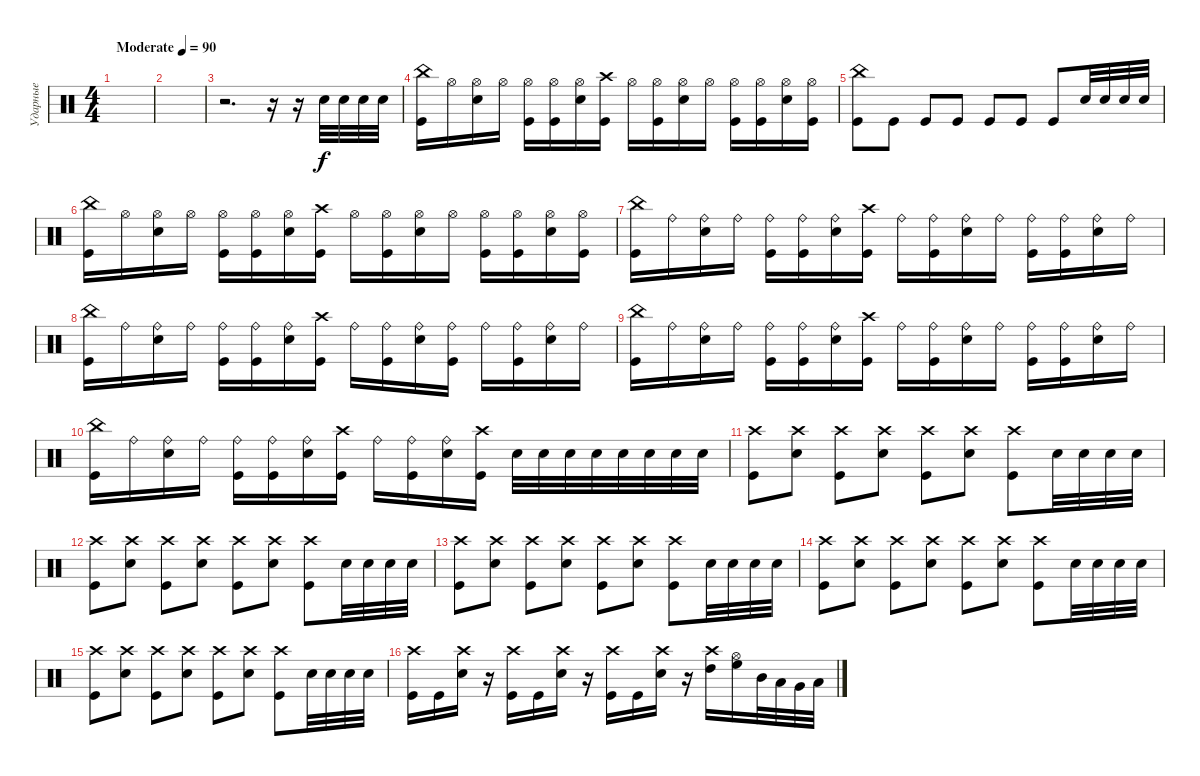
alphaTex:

\track ("Ударные" "Ударные") {instrument percussion}
\staff {score}
\articulation defaults
\ts (4 4)
\tempo (90 "Moderate")
\clef neutral
\ks c
|
|
r.2{d} r.16 r.16 "Electric Snare (hit)".32 "Electric Snare (hit)".32 "Electric Snare (hit)".32 "Electric Snare (hit)".32 |
("China (hit)" "Kick (hit)").16 "Hi-Hat (open)".16 ("Hi-Hat (open)" "Electric Snare (hit)").16 "Hi-Hat (open)".16 ("Hi-Hat (open)" "Kick (hit)").16 ("Hi-Hat (open)" "Kick (hit)").16 ("Hi-Hat (open)" "Electric Snare (hit)").16 ("Crash high (hit)" "Kick (hit)").16 "Hi-Hat (open)".16 ("Hi-Hat (open)" "Kick (hit)").16 ("Hi-Hat (open)" "Electric Snare (hit)").16 "Hi-Hat (open)".16 ("Hi-Hat (open)" "Kick (hit)").16 ("Hi-Hat (open)" "Kick (hit)").16 ("Hi-Hat (open)" "Electric Snare (hit)").16 ("Hi-Hat (open)" "Kick (hit)").16 |
("China (hit)" "Kick (hit)").8 "Kick (hit)".8 "Kick (hit)".8 "Kick (hit)".8 "Kick (hit)".8 "Kick (hit)".8 "Kick (hit)".8 "Electric Snare (hit)".32 "Electric Snare (hit)".32 "Electric Snare (hit)".32 "Electric Snare (hit)".32 |
("China (hit)" "Kick (hit)").16 "Hi-Hat (open)".16 ("Hi-Hat (open)" "Electric Snare (hit)").16 "Hi-Hat (open)".16 ("Hi-Hat (open)" "Kick (hit)").16 ("Hi-Hat (open)" "Kick (hit)").16 ("Hi-Hat (open)" "Electric Snare (hit)").16 ("Crash high (hit)" "Kick (hit)").16 "Hi-Hat (open)".16 ("Hi-Hat (open)" "Kick (hit)").16 ("Hi-Hat (open)" "Electric Snare (hit)").16 "Hi-Hat (open)".16 ("Hi-Hat (open)" "Kick (hit)").16 ("Hi-Hat (open)" "Kick (hit)").16 ("Hi-Hat (open)" "Electric Snare (hit)").16 ("Kick (hit)" "Hi-Hat (open)").16 |
("China (hit)" "Kick (hit)").16 "Ride (bell)".16 ("Ride (bell)" "Electric Snare (hit)").16 "Ride (bell)".16 ("Ride (bell)" "Kick (hit)").16 ("Ride (bell)" "Kick (hit)").16 ("Ride (bell)" "Electric Snare (hit)").16 ("Crash high (hit)" "Kick (hit)").16 "Ride (bell)".16 ("Ride (bell)" "Kick (hit)").16 ("Ride (bell)" "Electric Snare (hit)").16 "Ride (bell)".16 ("Ride (bell)" "Kick (hit)").16 ("Ride (bell)" "Kick (hit)").16 ("Ride (bell)" "Electric Snare (hit)").16 "Ride (bell)".16 |
("China (hit)" "Kick (hit)").16 "Ride (bell)".16 ("Ride (bell)" "Electric Snare (hit)").16 "Ride (bell)".16 ("Ride (bell)" "Kick (hit)").16 ("Ride (bell)" "Kick (hit)").16 ("Ride (bell)" "Electric Snare (hit)").16 ("Crash high (hit)" "Kick (hit)").16 "Ride (bell)".16 ("Ride (bell)" "Kick (hit)").16 ("Ride (bell)" "Electric Snare (hit)").16 ("Ride (bell)" "Kick (hit)").16 "Ride (bell)".16 ("Ride (bell)" "Kick (hit)").16 ("Ride (bell)" "Electric Snare (hit)").16 "Ride (bell)".16 |
("China (hit)" "Kick (hit)").16 "Ride (bell)".16 ("Ride (bell)" "Electric Snare (hit)").16 "Ride (bell)".16 ("Ride (bell)" "Kick (hit)").16 ("Ride (bell)" "Kick (hit)").16 ("Ride (bell)" "Electric Snare (hit)").16 ("Crash high (hit)" "Kick (hit)").16 "Ride (bell)".16 ("Ride (bell)" "Kick (hit)").16 ("Ride (bell)" "Electric Snare (hit)").16 "Ride (bell)".16 ("Ride (bell)" "Kick (hit)").16 ("Ride (bell)" "Kick (hit)").16 ("Ride (bell)" "Electric Snare (hit)").16 "Ride (bell)".16 |
("China (hit)" "Kick (hit)").16 "Ride (bell)".16 ("Ride (bell)" "Electric Snare (hit)").16 "Ride (bell)".16 ("Ride (bell)" "Kick (hit)").16 ("Ride (bell)" "Kick (hit)").16 ("Ride (bell)" "Electric Snare (hit)").16 ("Crash high (hit)" "Kick (hit)").16 "Ride (bell)".16 ("Ride (bell)" "Kick (hit)").16 ("Ride (bell)" "Electric Snare (hit)").16 ("Crash high (hit)" "Kick (hit)").16 "Electric Snare (hit)".32 "Electric Snare (hit)".32 "Electric Snare (hit)".32 "Electric Snare (hit)".32 "Electric Snare (hit)".32 "Electric Snare (hit)".32 "Electric Snare (hit)".32 "Electric Snare (hit)".32 |
("Crash high (hit)" "Kick (hit)").8 ("Electric Snare (hit)" "Crash high (hit)").8 ("Kick (hit)" "Crash high (hit)").8 ("Electric Snare (hit)" "Crash high (hit)").8 ("Kick (hit)" "Crash high (hit)").8 ("Electric Snare (hit)" "Crash high (hit)").8 ("Kick (hit)" "Crash high (hit)").8 "Electric Snare (hit)".32 "Electric Snare (hit)".32 "Electric Snare (hit)".32 "Electric Snare (hit)".32 |
("Crash high (hit)" "Kick (hit)").8 ("Electric Snare (hit)" "Crash high (hit)").8 ("Kick (hit)" "Crash high (hit)").8 ("Electric Snare (hit)" "Crash high (hit)").8 ("Kick (hit)" "Crash high (hit)").8 ("Electric Snare (hit)" "Crash high (hit)").8 ("Kick (hit)" "Crash high (hit)").8 "Electric Snare (hit)".32 "Electric Snare (hit)".32 "Electric Snare (hit)".32 "Electric Snare (hit)".32 |
("Crash high (hit)" "Kick (hit)").8 ("Electric Snare (hit)" "Crash high (hit)").8 ("Kick (hit)" "Crash high (hit)").8 ("Electric Snare (hit)" "Crash high (hit)").8 ("Kick (hit)" "Crash high (hit)").8 ("Electric Snare (hit)" "Crash high (hit)").8 ("Kick (hit)" "Crash high (hit)").8 "Electric Snare (hit)".32 "Electric Snare (hit)".32 "Electric Snare (hit)".32 "Electric Snare (hit)".32 |
("Crash high (hit)" "Kick (hit)").8 ("Electric Snare (hit)" "Crash high (hit)").8 ("Kick (hit)" "Crash high (hit)").8 ("Electric Snare (hit)" "Crash high (hit)").8 ("Kick (hit)" "Crash high (hit)").8 ("Electric Snare (hit)" "Crash high (hit)").8 ("Kick (hit)" "Crash high (hit)").8 "Electric Snare (hit)".32 "Electric Snare (hit)".32 "Electric Snare (hit)".32 "Electric Snare (hit)".32 |
("Crash high (hit)" "Kick (hit)").8 ("Electric Snare (hit)" "Crash high (hit)").8 ("Kick (hit)" "Crash high (hit)").8 ("Electric Snare (hit)" "Crash high (hit)").8 ("Kick (hit)" "Crash high (hit)").8 ("Electric Snare (hit)" "Crash high (hit)").8 ("Kick (hit)" "Crash high (hit)").8 "Electric Snare (hit)".32 "Electric Snare (hit)".32 "Electric Snare (hit)".32 "Electric Snare (hit)".32 |
("Crash high (hit)" "Kick (hit)").16 "Kick (hit)".16 ("Crash high (hit)" "Electric Snare (hit)").16 r.16 ("Crash high (hit)" "Kick (hit)").16 "Kick (hit)".16 ("Crash high (hit)" "Electric Snare (hit)").16 r.16 ("Crash high (hit)" "Kick (hit)").16 "Kick (hit)".16 ("Crash high (hit)" "Electric Snare (hit)").16 r.16 ("Crash high (hit)" "High Tom (hit)").16 ("Hi-Hat (open)" "High Floor Tom (hit)").16 "Mid Tom (hit)".32 "Low Tom (hit)".32 "Very Low Tom (hit)".32 "Low Floor Tom (hit)".32
